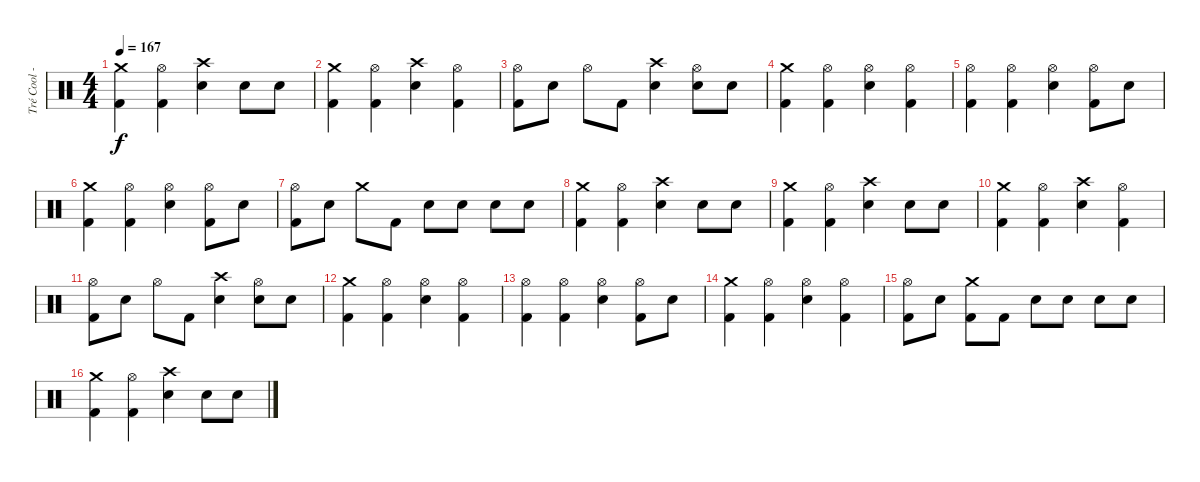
\track ("Tré Cool - Drums" "Tré Cool -") {instrument percussion}
\staff {score}
\articulation defaults
\ts (4 4)
\tempo 167
\clef neutral
\ks c
("Crash medium (hit)" "Kick (hit) 2").4{dy f} ("Hi-Hat (open)" "Kick (hit) 2").4 ("Crash high (hit)" "Electric Snare (hit)").4 "Electric Snare (hit)".8 "Electric Snare (hit)".8 |
("Crash medium (hit)" "Kick (hit) 2").4 ("Hi-Hat (open)" "Kick (hit) 2").4 ("Crash high (hit)" "Electric Snare (hit)").4 ("Hi-Hat (open)" "Kick (hit) 2").4 |
("Hi-Hat (open)" "Kick (hit) 2").8 "Electric Snare (hit)".8 "Hi-Hat (open)".8 "Kick (hit) 2".8 ("Crash high (hit)" "Electric Snare (hit)").4 ("Hi-Hat (open)" "Electric Snare (hit)").8 "Electric Snare (hit)".8 |
("Crash medium (hit)" "Kick (hit) 2").4 ("Hi-Hat (open)" "Kick (hit) 2").4 ("Hi-Hat (open)" "Electric Snare (hit)").4 ("Hi-Hat (open)" "Kick (hit) 2").4 |
("Hi-Hat (open)" "Kick (hit) 2").4 ("Hi-Hat (open)" "Kick (hit) 2").4 ("Hi-Hat (open)" "Electric Snare (hit)").4 ("Hi-Hat (open)" "Kick (hit) 2").8 "Electric Snare (hit)".8 |
("Crash medium (hit)" "Kick (hit) 2").4 ("Hi-Hat (open)" "Kick (hit) 2").4 ("Hi-Hat (open)" "Electric Snare (hit)").4 ("Hi-Hat (open)" "Kick (hit) 2").8 "Electric Snare (hit)".8 |
("Hi-Hat (open)" "Kick (hit) 2").8 "Electric Snare (hit)".8 "Crash medium (hit)".8 "Kick (hit) 2".8 "Electric Snare (hit)".8 "Electric Snare (hit)".8 "Electric Snare (hit)".8 "Electric Snare (hit)".8 |
("Crash medium (hit)" "Kick (hit) 2").4 ("Hi-Hat (open)" "Kick (hit) 2").4 ("Crash high (hit)" "Electric Snare (hit)").4 "Electric Snare (hit)".8 "Electric Snare (hit)".8 |
("Crash medium (hit)" "Kick (hit) 2").4 ("Hi-Hat (open)" "Kick (hit) 2").4 ("Crash high (hit)" "Electric Snare (hit)").4 "Electric Snare (hit)".8 "Electric Snare (hit)".8 |
("Crash medium (hit)" "Kick (hit) 2").4 ("Hi-Hat (open)" "Kick (hit) 2").4 ("Crash high (hit)" "Electric Snare (hit)").4 ("Hi-Hat (open)" "Kick (hit) 2").4 |
("Hi-Hat (open)" "Kick (hit) 2").8 "Electric Snare (hit)".8 "Hi-Hat (open)".8 "Kick (hit) 2".8 ("Crash high (hit)" "Electric Snare (hit)").4 ("Hi-Hat (open)" "Electric Snare (hit)").8 "Electric Snare (hit)".8 |
("Crash medium (hit)" "Kick (hit) 2").4 ("Hi-Hat (open)" "Kick (hit) 2").4 ("Hi-Hat (open)" "Electric Snare (hit)").4 ("Hi-Hat (open)" "Kick (hit) 2").4 |
("Hi-Hat (open)" "Kick (hit) 2").4 ("Hi-Hat (open)" "Kick (hit) 2").4 ("Hi-Hat (open)" "Electric Snare (hit)").4 ("Hi-Hat (open)" "Kick (hit) 2").8 "Electric Snare (hit)".8 |
("Crash medium (hit)" "Kick (hit) 2").4 ("Hi-Hat (open)" "Kick (hit) 2").4 ("Hi-Hat (open)" "Electric Snare (hit)").4 ("Hi-Hat (open)" "Kick (hit) 2").4 |
("Hi-Hat (open)" "Kick (hit) 2").8 "Electric Snare (hit)".8 ("Crash medium (hit)" "Kick (hit) 2").8 "Kick (hit) 2".8 "Electric Snare (hit)".8 "Electric Snare (hit)".8 "Electric Snare (hit)".8 "Electric Snare (hit)".8 |
("Crash medium (hit)" "Kick (hit) 2").4 ("Hi-Hat (open)" "Kick (hit) 2").4 ("Crash high (hit)" "Electric Snare (hit)").4 "Electric Snare (hit)".8 "Electric Snare (hit)".8
